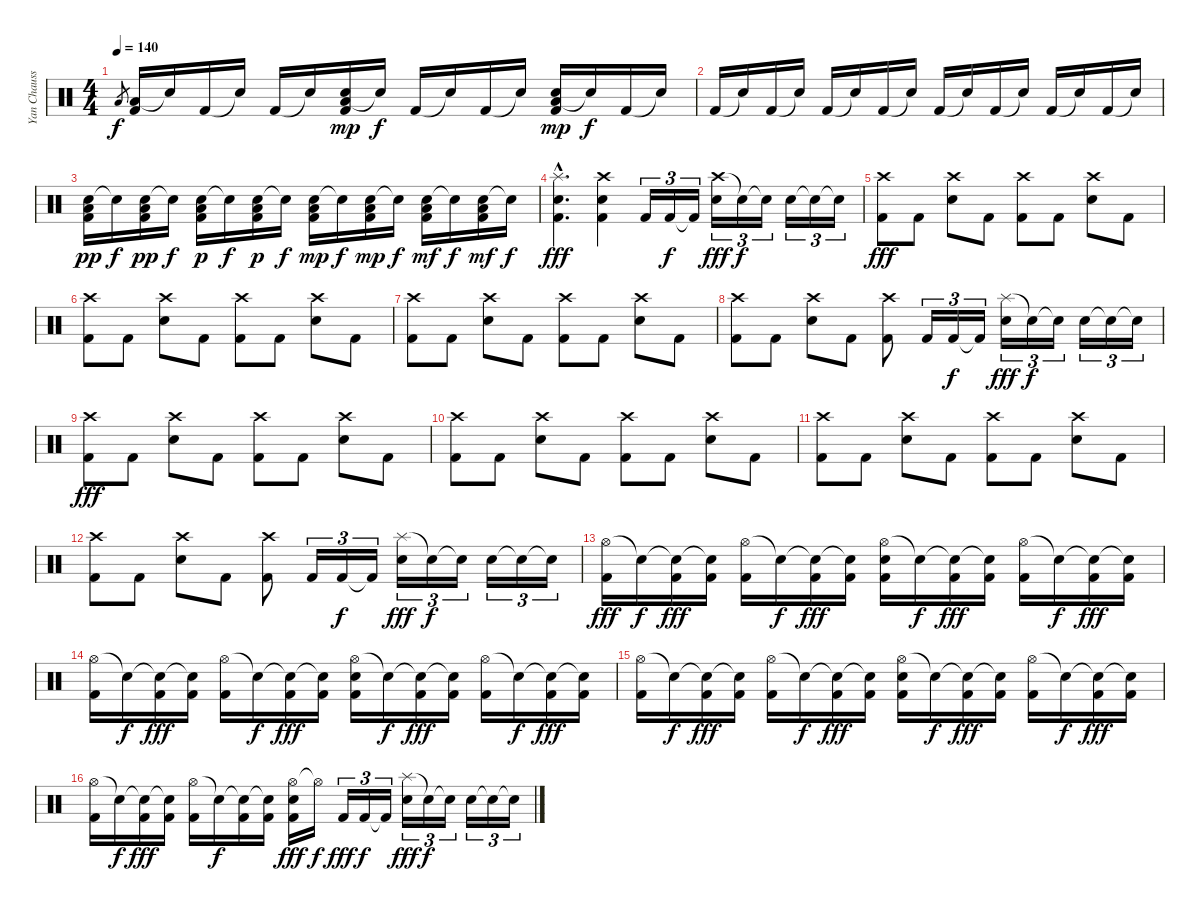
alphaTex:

\track ("Yan Chausse" "Yan Chauss") {instrument percussion}
\staff {score}
\articulation defaults
\ts (4 4)
\tempo 140
\clef neutral
\ks c "Low Floor Tom (hit)".8{gr dy f}
("Low Floor Tom (hit)" "Kick (hit) 2").16 "Snare (hit)"{t}.16 "Kick (hit) 2".16 "Snare (hit)"{t}.16 "Kick (hit) 2".16 "Snare (hit)"{t}.16 ("Low Floor Tom (hit)" "Snare (hit) 2" "Kick (hit) 2").16{dy mp} "Snare (hit)"{t}.16{dy f} "Kick (hit) 2".16 "Snare (hit)"{t}.16 "Kick (hit) 2".16 "Snare (hit)"{t}.16 ("Low Floor Tom (hit)" "Snare (hit) 2" "Kick (hit) 2").16{dy mp} "Snare (hit)"{t}.16{dy f} "Kick (hit) 2".16 "Snare (hit)"{t}.16 |
"Kick (hit) 2".16 "Snare (hit)"{t}.16 "Kick (hit) 2".16 "Snare (hit)"{t}.16 "Kick (hit) 2".16 "Snare (hit)"{t}.16 "Kick (hit) 2".16 "Snare (hit)"{t}.16 "Kick (hit) 2".16 "Snare (hit)"{t}.16 "Kick (hit) 2".16 "Snare (hit)"{t}.16 "Kick (hit) 2".16 "Snare (hit)"{t}.16 "Kick (hit) 2".16 "Snare (hit)"{t}.16 |
("Snare (hit) 2" "Low Floor Tom (hit)" "Kick (hit) 2").16{dy pp} "Snare (hit)"{t}.16{dy f} ("Snare (hit) 2" "Low Floor Tom (hit)" "Kick (hit) 2").16{dy pp} "Snare (hit)"{t}.16{dy f} ("Snare (hit) 2" "Low Floor Tom (hit)" "Kick (hit) 2").16{dy p} "Snare (hit)"{t}.16{dy f} ("Snare (hit) 2" "Low Floor Tom (hit)" "Kick (hit) 2").16{dy p} "Snare (hit)"{t}.16{dy f} ("Snare (hit) 2" "Low Floor Tom (hit)" "Kick (hit) 2").16{dy mp} "Snare (hit)"{t}.16{dy f} ("Snare (hit) 2" "Low Floor Tom (hit)" "Kick (hit) 2").16{dy mp} "Snare (hit)"{t}.16{dy f} ("Snare (hit) 2" "Low Floor Tom (hit)" "Kick (hit) 2").16{dy mf} "Snare (hit)"{t}.16{dy f} ("Snare (hit) 2" "Low Floor Tom (hit)" "Kick (hit) 2").16{dy mf} "Snare (hit)"{t}.16{dy f} |
("Splash (hit)"{hac} "Snare (hit) 2"{hac} "Kick (hit) 2"{hac}).4{d dy fff} ("Crash high (hit)" "Snare (hit) 2" "Kick (hit) 2").4 "Kick (hit) 2".16{tu (3 2)} "Kick (hit) 2".16{tu (3 2) dy f} "Kick (hit) 2"{t}.16{tu (3 2)} ("Crash high (hit)" "Snare (hit) 2").16{tu (3 2) dy fff} "Snare (hit) 2"{t}.16{tu (3 2) dy f} "Snare (hit) 2"{t}.16{tu (3 2)} "Snare (hit) 2".16{tu (3 2)} "Snare (hit)"{t}.16{tu (3 2)} "Snare (hit)"{t}.16{tu (3 2)} |
("Crash high (hit)" "Kick (hit) 2").8{dy fff} "Kick (hit) 2".8 ("Crash high (hit)" "Snare (hit) 2").8 "Kick (hit) 2".8 ("Crash high (hit)" "Kick (hit) 2").8 "Kick (hit) 2".8 ("Crash high (hit)" "Snare (hit) 2").8 "Kick (hit) 2".8 |
("Crash high (hit)" "Kick (hit) 2").8 "Kick (hit) 2".8 ("Crash high (hit)" "Snare (hit) 2").8 "Kick (hit) 2".8 ("Crash high (hit)" "Kick (hit) 2").8 "Kick (hit) 2".8 ("Crash high (hit)" "Snare (hit) 2").8 "Kick (hit) 2".8 |
("Crash high (hit)" "Kick (hit) 2").8 "Kick (hit) 2".8 ("Crash high (hit)" "Snare (hit) 2").8 "Kick (hit) 2".8 ("Crash high (hit)" "Kick (hit) 2").8 "Kick (hit) 2".8 ("Crash high (hit)" "Snare (hit) 2").8 "Kick (hit) 2".8 |
("Crash high (hit)" "Kick (hit) 2").8 "Kick (hit) 2".8 ("Crash high (hit)" "Snare (hit) 2").8 "Kick (hit) 2".8 ("Crash high (hit)" "Kick (hit) 2").8 "Kick (hit) 2".16{tu (3 2)} "Kick (hit) 2".16{tu (3 2) dy f} "Kick (hit) 2"{t}.16{tu (3 2)} ("Splash (hit)" "Snare (hit) 2").16{tu (3 2) dy fff} "Snare (hit) 2"{t}.16{tu (3 2) dy f} "Snare (hit) 2"{t}.16{tu (3 2)} "Snare (hit) 2".16{tu (3 2)} "Snare (hit)"{t}.16{tu (3 2)} "Snare (hit)"{t}.16{tu (3 2)} |
("Crash high (hit)" "Kick (hit) 2").8{dy fff} "Kick (hit) 2".8 ("Crash high (hit)" "Snare (hit) 2").8 "Kick (hit) 2".8 ("Crash high (hit)" "Kick (hit) 2").8 "Kick (hit) 2".8 ("Crash high (hit)" "Snare (hit) 2").8 "Kick (hit) 2".8 |
("Crash high (hit)" "Kick (hit) 2").8 "Kick (hit) 2".8 ("Crash high (hit)" "Snare (hit) 2").8 "Kick (hit) 2".8 ("Crash high (hit)" "Kick (hit) 2").8 "Kick (hit) 2".8 ("Crash high (hit)" "Snare (hit) 2").8 "Kick (hit) 2".8 |
("Crash high (hit)" "Kick (hit) 2").8 "Kick (hit) 2".8 ("Crash high (hit)" "Snare (hit) 2").8 "Kick (hit) 2".8 ("Crash high (hit)" "Kick (hit) 2").8 "Kick (hit) 2".8 ("Crash high (hit)" "Snare (hit) 2").8 "Kick (hit) 2".8 |
("Crash high (hit)" "Kick (hit) 2").8 "Kick (hit) 2".8 ("Crash high (hit)" "Snare (hit) 2").8 "Kick (hit) 2".8 ("Crash high (hit)" "Kick (hit) 2").8 "Kick (hit) 2".16{tu (3 2)} "Kick (hit) 2".16{tu (3 2) dy f} "Kick (hit) 2"{t}.16{tu (3 2)} ("Splash (hit)" "Snare (hit) 2").16{tu (3 2) dy fff} "Snare (hit) 2"{t}.16{tu (3 2) dy f} "Snare (hit) 2"{t}.16{tu (3 2)} "Snare (hit) 2".16{tu (3 2)} "Snare (hit)"{t}.16{tu (3 2)} "Snare (hit)"{t}.16{tu (3 2)} |
("Hi-Hat (open)" "Kick (hit) 2").16{dy fff} "Snare (hit)"{t}.16{dy f} ("Snare (hit)"{t} "Kick (hit) 2").16{dy fff} ("Snare (hit)"{t} "Kick (hit) 2").16 ("Hi-Hat (open)" "Kick (hit) 2").16 "Snare (hit)"{t}.16{dy f} ("Snare (hit)"{t} "Kick (hit) 2").16{dy fff} ("Snare (hit)"{t} "Kick (hit) 2").16 ("Hi-Hat (open)" "Snare (hit) 2" "Kick (hit) 2").16 "Snare (hit)"{t}.16{dy f} ("Snare (hit)"{t} "Kick (hit) 2").16{dy fff} ("Snare (hit)"{t} "Kick (hit) 2").16 ("Hi-Hat (open)" "Kick (hit) 2").16 "Snare (hit)"{t}.16{dy f} ("Snare (hit)"{t} "Kick (hit) 2").16{dy fff} ("Snare (hit)"{t} "Kick (hit) 2").16 |
("Hi-Hat (open)" "Kick (hit) 2").16 "Snare (hit)"{t}.16{dy f} ("Snare (hit)"{t} "Kick (hit) 2").16{dy fff} ("Snare (hit)"{t} "Kick (hit) 2").16 ("Hi-Hat (open)" "Kick (hit) 2").16 "Snare (hit)"{t}.16{dy f} ("Snare (hit)"{t} "Kick (hit) 2").16{dy fff} ("Snare (hit)"{t} "Kick (hit) 2").16 ("Hi-Hat (open)" "Snare (hit) 2" "Kick (hit) 2").16 "Snare (hit)"{t}.16{dy f} ("Snare (hit)"{t} "Kick (hit) 2").16{dy fff} ("Snare (hit)"{t} "Kick (hit) 2").16 ("Hi-Hat (open)" "Kick (hit) 2").16 "Snare (hit)"{t}.16{dy f} ("Snare (hit)"{t} "Kick (hit) 2").16{dy fff} ("Snare (hit)"{t} "Kick (hit) 2").16 |
("Hi-Hat (open)" "Kick (hit) 2").16 "Snare (hit)"{t}.16{dy f} ("Snare (hit)"{t} "Kick (hit) 2").16{dy fff} ("Snare (hit)"{t} "Kick (hit) 2").16 ("Hi-Hat (open)" "Kick (hit) 2").16 "Snare (hit)"{t}.16{dy f} ("Snare (hit)"{t} "Kick (hit) 2").16{dy fff} ("Snare (hit)"{t} "Kick (hit) 2").16 ("Hi-Hat (open)" "Snare (hit) 2" "Kick (hit) 2").16 "Snare (hit)"{t}.16{dy f} ("Snare (hit)"{t} "Kick (hit) 2").16{dy fff} ("Snare (hit)"{t} "Kick (hit) 2").16 ("Hi-Hat (open)" "Kick (hit) 2").16 "Snare (hit)"{t}.16{dy f} ("Snare (hit)"{t} "Kick (hit) 2").16{dy fff} ("Snare (hit)"{t} "Kick (hit) 2").16 |
("Hi-Hat (open)" "Kick (hit) 2").16 "Snare (hit)"{t}.16{dy f} ("Snare (hit)"{t} "Kick (hit) 2").16{dy fff} ("Snare (hit)"{t} "Kick (hit) 2").16 ("Hi-Hat (open)" "Kick (hit) 2").16 "Snare (hit)"{t}.16{dy f} ("Snare (hit)"{t} "Kick (hit) 2").16 ("Snare (hit)"{t} "Kick (hit) 2").16 ("Hi-Hat (open)" "Snare (hit) 2" "Kick (hit) 2").16{dy fff} "Hi-Hat (open)"{t}.16{dy f} "Kick (hit) 2".16{tu (3 2) dy fff} "Kick (hit) 2".16{tu (3 2) dy f} "Kick (hit) 2"{t}.16{tu (3 2)} ("Splash (hit)" "Snare (hit) 2").16{tu (3 2) dy fff} "Snare (hit) 2"{t}.16{tu (3 2) dy f} "Snare (hit) 2"{t}.16{tu (3 2)} "Snare (hit) 2".16{tu (3 2)} "Snare (hit)"{t}.16{tu (3 2)} "Snare (hit)"{t}.16{tu (3 2)}
